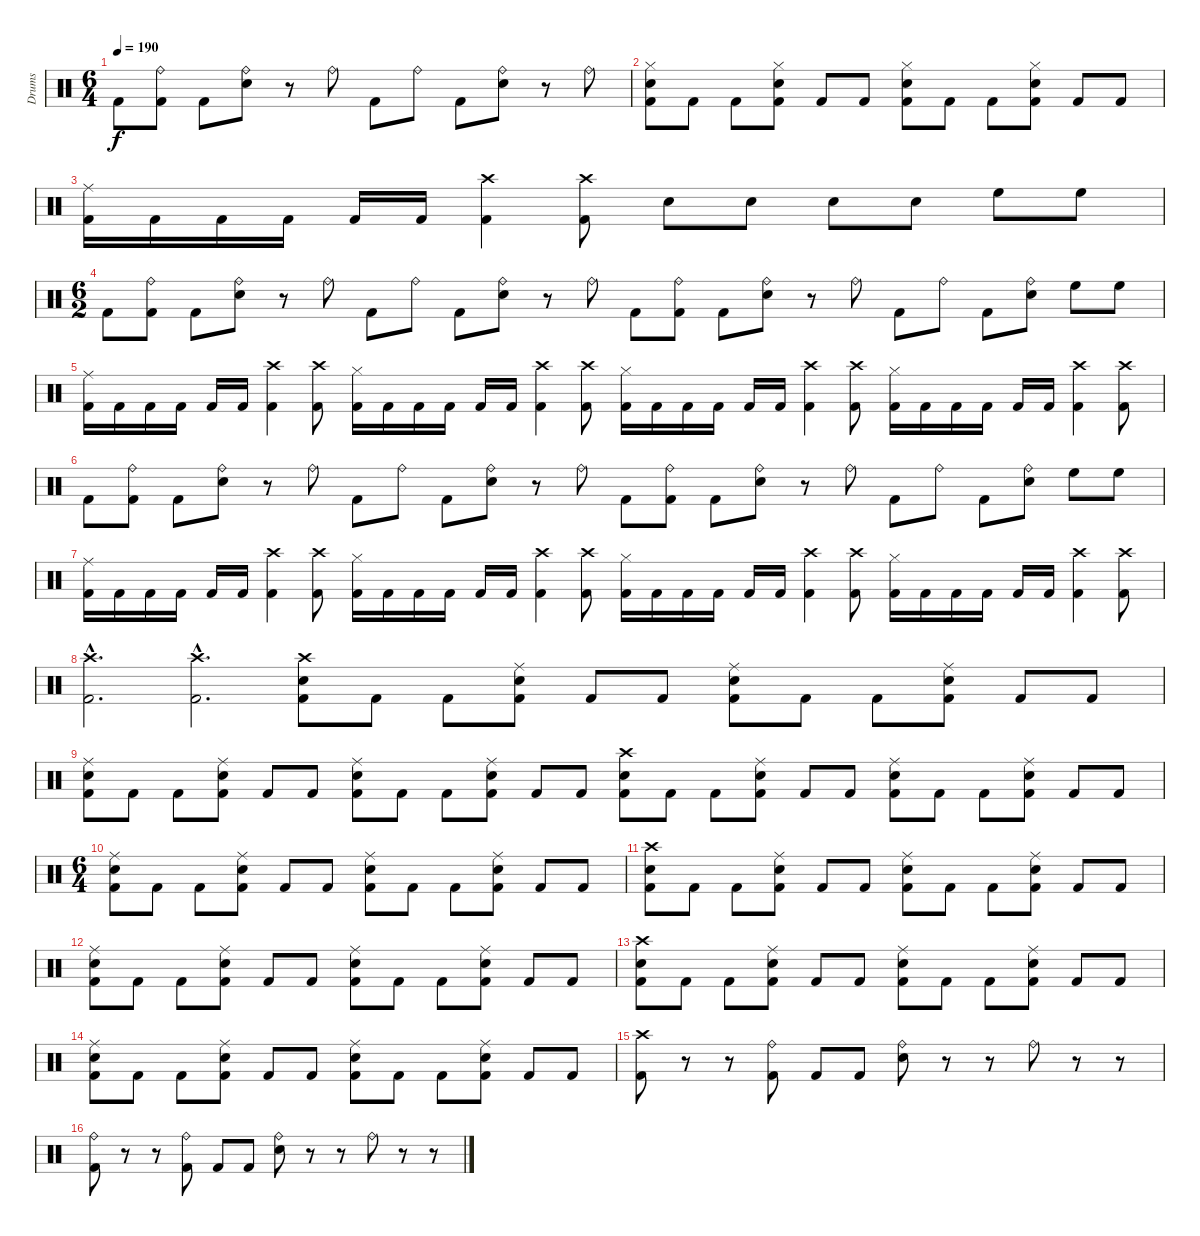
\track ("Drums" "Drums") {instrument percussion}
\staff {score}
\articulation defaults
\ts (6 4)
\tempo 190
\clef neutral
\ks c "Kick (hit) 2".8{dy f}
("Ride (bell)" "Kick (hit) 2").8 "Kick (hit) 2".8 ("Ride (bell)" "Snare (hit) 2").8 r.8 "Ride (bell)".8 "Kick (hit) 2".8 "Ride (bell)".8 "Kick (hit) 2".8 ("Ride (bell)" "Snare (hit) 2").8 r.8 "Ride (bell)".8 |
("Hi-Hat (closed)" "Snare (hit) 2" "Kick (hit) 2").8 "Kick (hit) 2".8 "Kick (hit) 2".8 ("Hi-Hat (closed)" "Snare (hit) 2" "Kick (hit) 2").8 "Kick (hit) 2".8 "Kick (hit) 2".8 ("Hi-Hat (closed)" "Snare (hit) 2" "Kick (hit) 2").8 "Kick (hit) 2".8 "Kick (hit) 2".8 ("Hi-Hat (closed)" "Snare (hit) 2" "Kick (hit) 2").8 "Kick (hit) 2".8 "Kick (hit) 2".8 |
("Ride (middle)" "Kick (hit) 2").16 "Kick (hit) 2".16 "Kick (hit) 2".16 "Kick (hit) 2".16 "Kick (hit) 2".16 "Kick (hit) 2".16 ("Crash high (hit)" "Kick (hit) 2").4 ("Crash high (hit)" "Kick (hit) 2").8 "Snare (hit) 2".8 "Snare (hit) 2".8 "Snare (hit) 2".8 "Snare (hit) 2".8 "High Floor Tom (hit)".8 "High Floor Tom (hit)".8 |
\ts (6 2)
"Kick (hit) 2".8 ("Ride (bell)" "Kick (hit) 2").8 "Kick (hit) 2".8 ("Ride (bell)" "Snare (hit) 2").8 r.8 "Ride (bell)".8 "Kick (hit) 2".8 "Ride (bell)".8 "Kick (hit) 2".8 ("Ride (bell)" "Snare (hit) 2").8 r.8 "Ride (bell)".8 "Kick (hit) 2".8 ("Ride (bell)" "Kick (hit) 2").8 "Kick (hit) 2".8 ("Ride (bell)" "Snare (hit) 2").8 r.8 "Ride (bell)".8 "Kick (hit) 2".8 "Ride (bell)".8 "Kick (hit) 2".8 ("Ride (bell)" "Snare (hit) 2").8 "High Floor Tom (hit)".8 "High Floor Tom (hit)".8 |
("Ride (middle)" "Kick (hit) 2").16 "Kick (hit) 2".16 "Kick (hit) 2".16 "Kick (hit) 2".16 "Kick (hit) 2".16 "Kick (hit) 2".16 ("Crash high (hit)" "Kick (hit) 2").4 ("Crash high (hit)" "Kick (hit) 2").8 ("Hi-Hat (closed)" "Kick (hit) 2").16 "Kick (hit) 2".16 "Kick (hit) 2".16 "Kick (hit) 2".16 "Kick (hit) 2".16 "Kick (hit) 2".16 ("Crash high (hit)" "Kick (hit) 2").4 ("Crash high (hit)" "Kick (hit) 2").8 ("Hi-Hat (closed)" "Kick (hit) 2").16 "Kick (hit) 2".16 "Kick (hit) 2".16 "Kick (hit) 2".16 "Kick (hit) 2".16 "Kick (hit) 2".16 ("Crash high (hit)" "Kick (hit) 2").4 ("Crash high (hit)" "Kick (hit) 2").8 ("Hi-Hat (closed)" "Kick (hit) 2").16 "Kick (hit) 2".16 "Kick (hit) 2".16 "Kick (hit) 2".16 "Kick (hit) 2".16 "Kick (hit) 2".16 ("Crash high (hit)" "Kick (hit) 2").4 ("Crash high (hit)" "Kick (hit) 2").8 |
"Kick (hit) 2".8 ("Ride (bell)" "Kick (hit) 2").8 "Kick (hit) 2".8 ("Ride (bell)" "Snare (hit) 2").8 r.8 "Ride (bell)".8 "Kick (hit) 2".8 "Ride (bell)".8 "Kick (hit) 2".8 ("Ride (bell)" "Snare (hit) 2").8 r.8 "Ride (bell)".8 "Kick (hit) 2".8 ("Ride (bell)" "Kick (hit) 2").8 "Kick (hit) 2".8 ("Ride (bell)" "Snare (hit) 2").8 r.8 "Ride (bell)".8 "Kick (hit) 2".8 "Ride (bell)".8 "Kick (hit) 2".8 ("Ride (bell)" "Snare (hit) 2").8 "High Floor Tom (hit)".8 "High Floor Tom (hit)".8 |
("Ride (middle)" "Kick (hit) 2").16 "Kick (hit) 2".16 "Kick (hit) 2".16 "Kick (hit) 2".16 "Kick (hit) 2".16 "Kick (hit) 2".16 ("Crash high (hit)" "Kick (hit) 2").4 ("Crash high (hit)" "Kick (hit) 2").8 ("Hi-Hat (closed)" "Kick (hit) 2").16 "Kick (hit) 2".16 "Kick (hit) 2".16 "Kick (hit) 2".16 "Kick (hit) 2".16 "Kick (hit) 2".16 ("Crash high (hit)" "Kick (hit) 2").4 ("Crash high (hit)" "Kick (hit) 2").8 ("Hi-Hat (closed)" "Kick (hit) 2").16 "Kick (hit) 2".16 "Kick (hit) 2".16 "Kick (hit) 2".16 "Kick (hit) 2".16 "Kick (hit) 2".16 ("Crash high (hit)" "Kick (hit) 2").4 ("Crash high (hit)" "Kick (hit) 2").8 ("Hi-Hat (closed)" "Kick (hit) 2").16 "Kick (hit) 2".16 "Kick (hit) 2".16 "Kick (hit) 2".16 "Kick (hit) 2".16 "Kick (hit) 2".16 ("Crash high (hit)" "Kick (hit) 2").4 ("Crash high (hit)" "Kick (hit) 2").8 |
("Crash high (hit)"{hac} "Kick (hit) 2"{hac}).2{d} ("Crash high (hit)"{hac} "Kick (hit) 2"{hac}).2{d} ("Crash high (hit)" "Snare (hit) 2" "Kick (hit) 2").8 "Kick (hit) 2".8 "Kick (hit) 2".8 ("Ride (middle)" "Snare (hit) 2" "Kick (hit) 2").8 "Kick (hit) 2".8 "Kick (hit) 2".8 ("Ride (middle)" "Snare (hit) 2" "Kick (hit) 2").8 "Kick (hit) 2".8 "Kick (hit) 2".8 ("Ride (middle)" "Snare (hit) 2" "Kick (hit) 2").8 "Kick (hit) 2".8 "Kick (hit) 2".8 |
("Ride (middle)" "Snare (hit) 2" "Kick (hit) 2").8 "Kick (hit) 2".8 "Kick (hit) 2".8 ("Ride (middle)" "Snare (hit) 2" "Kick (hit) 2").8 "Kick (hit) 2".8 "Kick (hit) 2".8 ("Ride (middle)" "Snare (hit) 2" "Kick (hit) 2").8 "Kick (hit) 2".8 "Kick (hit) 2".8 ("Ride (middle)" "Snare (hit) 2" "Kick (hit) 2").8 "Kick (hit) 2".8 "Kick (hit) 2".8 ("Crash high (hit)" "Snare (hit) 2" "Kick (hit) 2").8 "Kick (hit) 2".8 "Kick (hit) 2".8 ("Ride (middle)" "Snare (hit) 2" "Kick (hit) 2").8 "Kick (hit) 2".8 "Kick (hit) 2".8 ("Ride (middle)" "Snare (hit) 2" "Kick (hit) 2").8 "Kick (hit) 2".8 "Kick (hit) 2".8 ("Ride (middle)" "Snare (hit) 2" "Kick (hit) 2").8 "Kick (hit) 2".8 "Kick (hit) 2".8 |
\ts (6 4)
("Ride (middle)" "Snare (hit) 2" "Kick (hit) 2").8 "Kick (hit) 2".8 "Kick (hit) 2".8 ("Ride (middle)" "Snare (hit) 2" "Kick (hit) 2").8 "Kick (hit) 2".8 "Kick (hit) 2".8 ("Ride (middle)" "Snare (hit) 2" "Kick (hit) 2").8 "Kick (hit) 2".8 "Kick (hit) 2".8 ("Ride (middle)" "Snare (hit) 2" "Kick (hit) 2").8 "Kick (hit) 2".8 "Kick (hit) 2".8 |
("Crash high (hit)" "Snare (hit) 2" "Kick (hit) 2").8 "Kick (hit) 2".8 "Kick (hit) 2".8 ("Ride (middle)" "Snare (hit) 2" "Kick (hit) 2").8 "Kick (hit) 2".8 "Kick (hit) 2".8 ("Ride (middle)" "Snare (hit) 2" "Kick (hit) 2").8 "Kick (hit) 2".8 "Kick (hit) 2".8 ("Ride (middle)" "Snare (hit) 2" "Kick (hit) 2").8 "Kick (hit) 2".8 "Kick (hit) 2".8 |
("Ride (middle)" "Snare (hit) 2" "Kick (hit) 2").8 "Kick (hit) 2".8 "Kick (hit) 2".8 ("Ride (middle)" "Snare (hit) 2" "Kick (hit) 2").8 "Kick (hit) 2".8 "Kick (hit) 2".8 ("Ride (middle)" "Snare (hit) 2" "Kick (hit) 2").8 "Kick (hit) 2".8 "Kick (hit) 2".8 ("Ride (middle)" "Snare (hit) 2" "Kick (hit) 2").8 "Kick (hit) 2".8 "Kick (hit) 2".8 |
("Crash high (hit)" "Snare (hit) 2" "Kick (hit) 2").8 "Kick (hit) 2".8 "Kick (hit) 2".8 ("Ride (middle)" "Snare (hit) 2" "Kick (hit) 2").8 "Kick (hit) 2".8 "Kick (hit) 2".8 ("Ride (middle)" "Snare (hit) 2" "Kick (hit) 2").8 "Kick (hit) 2".8 "Kick (hit) 2".8 ("Ride (middle)" "Snare (hit) 2" "Kick (hit) 2").8 "Kick (hit) 2".8 "Kick (hit) 2".8 |
("Ride (middle)" "Snare (hit) 2" "Kick (hit) 2").8 "Kick (hit) 2".8 "Kick (hit) 2".8 ("Ride (middle)" "Snare (hit) 2" "Kick (hit) 2").8 "Kick (hit) 2".8 "Kick (hit) 2".8 ("Ride (middle)" "Snare (hit) 2" "Kick (hit) 2").8 "Kick (hit) 2".8 "Kick (hit) 2".8 ("Ride (middle)" "Snare (hit) 2" "Kick (hit) 2").8 "Kick (hit) 2".8 "Kick (hit) 2".8 |
("Crash high (hit)" "Kick (hit) 2").8 r.8 r.8 ("Ride (bell)" "Kick (hit) 2").8 "Kick (hit) 2".8 "Kick (hit) 2".8 ("Ride (bell)" "Snare (hit) 2").8 r.8 r.8 "Ride (bell)".8 r.8 r.8 |
("Ride (bell)" "Kick (hit) 2").8 r.8 r.8 ("Ride (bell)" "Kick (hit) 2").8 "Kick (hit) 2".8 "Kick (hit) 2".8 ("Ride (bell)" "Snare (hit) 2").8 r.8 r.8 "Ride (bell)".8 r.8 r.8
